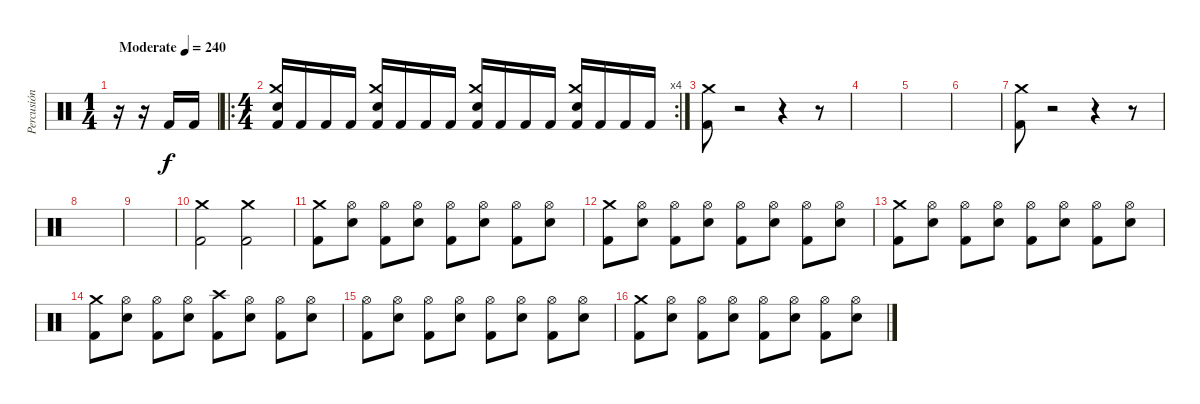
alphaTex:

\track ("Percusión" "Percusión") {instrument percussion}
\staff {score}
\articulation defaults
\ts (1 4)
\tempo (240 "Moderate")
\clef neutral
\ks c
r.16{dy f} r.16 "Kick (hit) 2".16 "Kick (hit) 2".16 |
\ro
\rc 4
\ts (4 4)
("Crash medium (hit)" "Electric Snare (hit)" "Kick (hit) 2").16 "Kick (hit) 2".16 "Kick (hit) 2".16 "Kick (hit) 2".16 ("Crash medium (hit)" "Electric Snare (hit)" "Kick (hit) 2").16 "Kick (hit) 2".16 "Kick (hit) 2".16 "Kick (hit) 2".16 ("Crash medium (hit)" "Electric Snare (hit)" "Kick (hit) 2").16 "Kick (hit) 2".16 "Kick (hit) 2".16 "Kick (hit) 2".16 ("Crash medium (hit)" "Electric Snare (hit)" "Kick (hit) 2").16 "Kick (hit) 2".16 "Kick (hit) 2".16 "Kick (hit) 2".16 |
("Crash medium (hit)" "Kick (hit) 2").8 r.2 r.4 r.8 |
|
|
|
("Crash medium (hit)" "Kick (hit) 2").8 r.2 r.4 r.8 |
|
|
("Crash medium (hit)" "Kick (hit) 2").2 ("Crash medium (hit)" "Kick (hit) 2").2 |
("Crash medium (hit)" "Kick (hit) 2").8 ("Hi-Hat (open)" "Electric Snare (hit)").8 ("Hi-Hat (open)" "Kick (hit) 2").8 ("Hi-Hat (open)" "Electric Snare (hit)").8 ("Hi-Hat (open)" "Kick (hit) 2").8 ("Hi-Hat (open)" "Electric Snare (hit)").8 ("Hi-Hat (open)" "Kick (hit) 2").8 ("Hi-Hat (open)" "Electric Snare (hit)").8 |
("Crash medium (hit)" "Kick (hit) 2").8 ("Hi-Hat (open)" "Electric Snare (hit)").8 ("Hi-Hat (open)" "Kick (hit) 2").8 ("Hi-Hat (open)" "Electric Snare (hit)").8 ("Hi-Hat (open)" "Kick (hit) 2").8 ("Hi-Hat (open)" "Electric Snare (hit)").8 ("Hi-Hat (open)" "Kick (hit) 2").8 ("Hi-Hat (open)" "Electric Snare (hit)").8 |
("Crash medium (hit)" "Kick (hit) 2").8 ("Hi-Hat (open)" "Electric Snare (hit)").8 ("Hi-Hat (open)" "Kick (hit) 2").8 ("Hi-Hat (open)" "Electric Snare (hit)").8 ("Hi-Hat (open)" "Kick (hit) 2").8 ("Hi-Hat (open)" "Electric Snare (hit)").8 ("Hi-Hat (open)" "Kick (hit) 2").8 ("Hi-Hat (open)" "Electric Snare (hit)").8 |
("Crash medium (hit)" "Kick (hit) 2").8 ("Hi-Hat (open)" "Electric Snare (hit)").8 ("Hi-Hat (open)" "Kick (hit) 2").8 ("Hi-Hat (open)" "Electric Snare (hit)").8 ("Crash high (hit)" "Kick (hit) 2").8 ("Hi-Hat (open)" "Electric Snare (hit)").8 ("Hi-Hat (open)" "Kick (hit) 2").8 ("Hi-Hat (open)" "Electric Snare (hit)").8 |
("Hi-Hat (open)" "Kick (hit) 2").8 ("Hi-Hat (open)" "Electric Snare (hit)").8 ("Hi-Hat (open)" "Kick (hit) 2").8 ("Hi-Hat (open)" "Electric Snare (hit)").8 ("Hi-Hat (open)" "Kick (hit) 2").8 ("Hi-Hat (open)" "Electric Snare (hit)").8 ("Hi-Hat (open)" "Kick (hit) 2").8 ("Hi-Hat (open)" "Electric Snare (hit)").8 |
("Crash medium (hit)" "Kick (hit) 2").8 ("Hi-Hat (open)" "Electric Snare (hit)").8 ("Hi-Hat (open)" "Kick (hit) 2").8 ("Hi-Hat (open)" "Electric Snare (hit)").8 ("Hi-Hat (open)" "Kick (hit) 2").8 ("Hi-Hat (open)" "Electric Snare (hit)").8 ("Hi-Hat (open)" "Kick (hit) 2").8 ("Hi-Hat (open)" "Electric Snare (hit)").8
